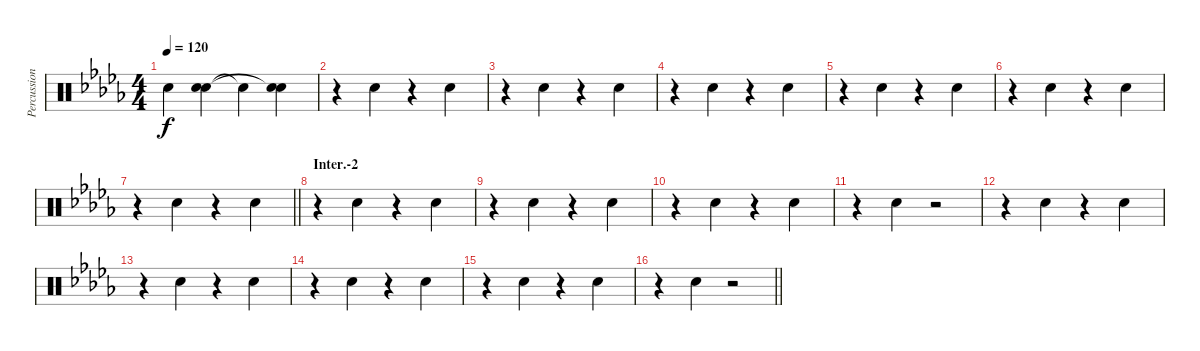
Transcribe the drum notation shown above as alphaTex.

\track ("Percussion B1 (Tainaka Ritsu)" "Percussion") {instrument percussion}
\staff {score}
\articulation defaults
\ts (4 4)
\tempo 120
\clef neutral
\ks db "Snare (hit)"{t}.4{dy f}
("Hand Clap (hit)" "Snare (hit)"{t}).4 "Snare (hit)"{t}.4 ("Hand Clap (hit)" "Snare (hit)"{t}).4 |
r.4 "Hand Clap (hit)".4 r.4 "Hand Clap (hit)".4 |
r.4 "Hand Clap (hit)".4 r.4 "Hand Clap (hit)".4 |
r.4 "Hand Clap (hit)".4 r.4 "Hand Clap (hit)".4 |
r.4 "Hand Clap (hit)".4 r.4 "Hand Clap (hit)".4 |
r.4 "Hand Clap (hit)".4 r.4 "Hand Clap (hit)".4 |
\barLineRight lightlight
r.4 "Hand Clap (hit)".4 r.4 "Hand Clap (hit)".4 |
\section ("" "Inter.-2")
r.4 "Hand Clap (hit)".4 r.4 "Hand Clap (hit)".4 |
r.4 "Hand Clap (hit)".4 r.4 "Hand Clap (hit)".4 |
r.4 "Hand Clap (hit)".4 r.4 "Hand Clap (hit)".4 |
r.4 "Hand Clap (hit)".4 r.2 |
r.4 "Hand Clap (hit)".4 r.4 "Hand Clap (hit)".4 |
r.4 "Hand Clap (hit)".4 r.4 "Hand Clap (hit)".4 |
r.4 "Hand Clap (hit)".4 r.4 "Hand Clap (hit)".4 |
r.4 "Hand Clap (hit)".4 r.4 "Hand Clap (hit)".4 |
\barLineRight lightlight
r.4 "Hand Clap (hit)".4 r.2
